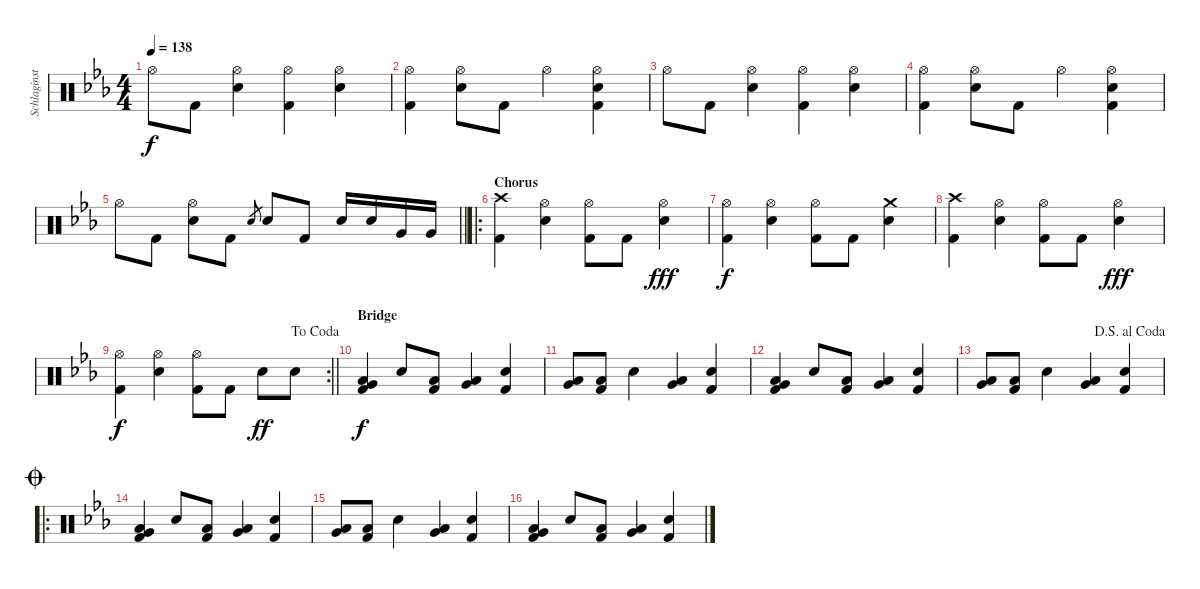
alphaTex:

\track ("Schlaginstrumente - Auswahl" "Schlaginst") {instrument percussion}
\staff {score}
\articulation defaults
\ts (4 4)
\tempo 138
\clef neutral
\ks eb "Hi-Hat (open)".8{dy f} "Kick (hit) 2".8
("Hi-Hat (open)" "Electric Snare (hit)").4 ("Hi-Hat (open)" "Kick (hit) 2").4 ("Hi-Hat (open)" "Electric Snare (hit)").4 |
("Hi-Hat (open)" "Kick (hit) 2").4 ("Hi-Hat (open)" "Electric Snare (hit)").8 "Kick (hit) 2".8 "Hi-Hat (open)".4 ("Hi-Hat (open)" "Electric Snare (hit)" "Kick (hit) 2").4 |
"Hi-Hat (open)".8 "Kick (hit) 2".8 ("Hi-Hat (open)" "Electric Snare (hit)").4 ("Hi-Hat (open)" "Kick (hit) 2").4 ("Hi-Hat (open)" "Electric Snare (hit)").4 |
("Hi-Hat (open)" "Kick (hit) 2").4 ("Hi-Hat (open)" "Electric Snare (hit)").8 "Kick (hit) 2".8 "Hi-Hat (open)".4 ("Hi-Hat (open)" "Electric Snare (hit)" "Kick (hit) 2").4 |
\barLineRight lightlight "Hi-Hat (open)".8 "Kick (hit) 2".8
("Hi-Hat (open)" "Electric Snare (hit)").8 "Kick (hit) 2".8 "Electric Snare (hit)".8{gr} "Electric Snare (hit)".8 "Kick (hit) 2".8 "Electric Snare (hit)".16 "Electric Snare (hit)".16 "Very Low Tom (hit)".16 "Very Low Tom (hit)".16 |
\ro
\section ("" "Chorus")
("Crash high (hit)" "Kick (hit) 2").4 ("Hi-Hat (open)" "Electric Snare (hit)").4 ("Hi-Hat (open)" "Kick (hit) 2").8 "Kick (hit) 2".8 ("Hi-Hat (open)" "Electric Snare (hit)").4{dy fff} |
("Hi-Hat (open)" "Kick (hit) 2").4{dy f} ("Hi-Hat (open)" "Electric Snare (hit)").4 ("Hi-Hat (open)" "Kick (hit) 2").8 "Kick (hit) 2".8 ("Crash medium (hit)" "Electric Snare (hit)").4 |
("Crash high (hit)" "Kick (hit) 2").4 ("Hi-Hat (open)" "Electric Snare (hit)").4 ("Hi-Hat (open)" "Kick (hit) 2").8 "Kick (hit) 2".8 ("Hi-Hat (open)" "Electric Snare (hit)").4{dy fff} |
\rc 2
\jump dacoda
\barLineRight lightlight
("Hi-Hat (open)" "Kick (hit) 2").4{dy f} ("Hi-Hat (open)" "Electric Snare (hit)").4 ("Hi-Hat (open)" "Kick (hit) 2").8 "Kick (hit) 2".8 "Electric Snare (hit)".8{dy ff} "Electric Snare (hit)".8 |
\section ("" "Bridge")
("Very Low Tom (hit)" "Low Floor Tom (hit)" "Kick (hit) 2").4{dy f} "Electric Snare (hit)".8 ("Low Floor Tom (hit)" "Kick (hit) 2").8 ("Low Tom (hit)" "Very Low Tom (hit)").4 ("Electric Snare (hit)" "Kick (hit) 2").4 |
("Low Tom (hit)" "Very Low Tom (hit)").8 ("Low Floor Tom (hit)" "Kick (hit) 2").8 "Electric Snare (hit)".4 ("Very Low Tom (hit)" "Low Floor Tom (hit)").4 ("Electric Snare (hit)" "Kick (hit) 2").4 |
("Very Low Tom (hit)" "Low Floor Tom (hit)" "Kick (hit) 2").4 "Electric Snare (hit)".8 ("Low Floor Tom (hit)" "Kick (hit) 2").8 ("Low Tom (hit)" "Very Low Tom (hit)").4 ("Electric Snare (hit)" "Kick (hit) 2").4 |
\jump dalsegnoalcoda
("Low Tom (hit)" "Very Low Tom (hit)").8 ("Low Floor Tom (hit)" "Kick (hit) 2").8 "Electric Snare (hit)".4 ("Very Low Tom (hit)" "Low Floor Tom (hit)").4 ("Electric Snare (hit)" "Kick (hit) 2").4 |
\ro
\jump coda
("Very Low Tom (hit)" "Low Floor Tom (hit)" "Kick (hit) 2").4 "Electric Snare (hit)".8 ("Low Floor Tom (hit)" "Kick (hit) 2").8 ("Low Tom (hit)" "Very Low Tom (hit)").4 ("Electric Snare (hit)" "Kick (hit) 2").4 |
("Low Tom (hit)" "Very Low Tom (hit)").8 ("Low Floor Tom (hit)" "Kick (hit) 2").8 "Electric Snare (hit)".4 ("Very Low Tom (hit)" "Low Floor Tom (hit)").4 ("Electric Snare (hit)" "Kick (hit) 2").4 |
("Very Low Tom (hit)" "Low Floor Tom (hit)" "Kick (hit) 2").4 "Electric Snare (hit)".8 ("Low Floor Tom (hit)" "Kick (hit) 2").8 ("Low Tom (hit)" "Very Low Tom (hit)").4 ("Electric Snare (hit)" "Kick (hit) 2").4
